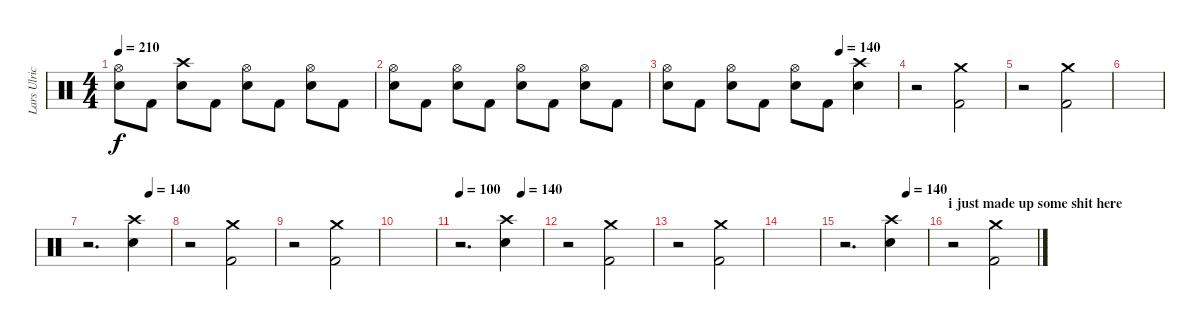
\track ("Lars Ulrich" "Lars Ulric") {instrument percussion}
\staff {score}
\articulation defaults
\ts (4 4)
\tempo 210
\clef neutral
\ks c
("Snare (hit) 2" "Hi-Hat (open)").8{dy f} "Kick (hit) 2".8 ("Snare (hit) 2" "Crash high (hit)").8 "Kick (hit) 2".8 ("Snare (hit) 2" "Hi-Hat (open)").8 "Kick (hit) 2".8 ("Snare (hit) 2" "Hi-Hat (open)").8 "Kick (hit) 2".8 |
("Snare (hit) 2" "Hi-Hat (open)").8 "Kick (hit) 2".8 ("Snare (hit) 2" "Hi-Hat (open)").8 "Kick (hit) 2".8 ("Snare (hit) 2" "Hi-Hat (open)").8 "Kick (hit) 2".8 ("Snare (hit) 2" "Hi-Hat (open)").8 "Kick (hit) 2".8 |
\tempo (140 0.75)
("Snare (hit) 2" "Hi-Hat (open)").8 "Kick (hit) 2".8 ("Snare (hit) 2" "Hi-Hat (open)").8 "Kick (hit) 2".8 ("Snare (hit) 2" "Hi-Hat (open)").8 "Kick (hit) 2".8 ("Snare (hit) 2" "Crash high (hit)").4 |
r.2 ("Crash medium (hit)" "Kick (hit) 2").2 |
r.2 ("Crash medium (hit)" "Kick (hit) 2").2 |
|
\tempo (140 0.75)
r.2{d} ("Snare (hit) 2" "Crash high (hit)").4 |
r.2 ("Crash medium (hit)" "Kick (hit) 2").2 |
r.2 ("Crash medium (hit)" "Kick (hit) 2").2 |
|
\tempo (140 0.75)
\tempo 100
r.2{d} ("Snare (hit) 2" "Crash high (hit)").4 |
r.2 ("Crash medium (hit)" "Kick (hit) 2").2 |
r.2 ("Crash medium (hit)" "Kick (hit) 2").2 |
|
\tempo (140 0.75)
r.2{d} ("Snare (hit) 2" "Crash high (hit)").4 |
\section ("" "i just made up some shit here")
r.2 ("Crash medium (hit)" "Kick (hit) 2").2
